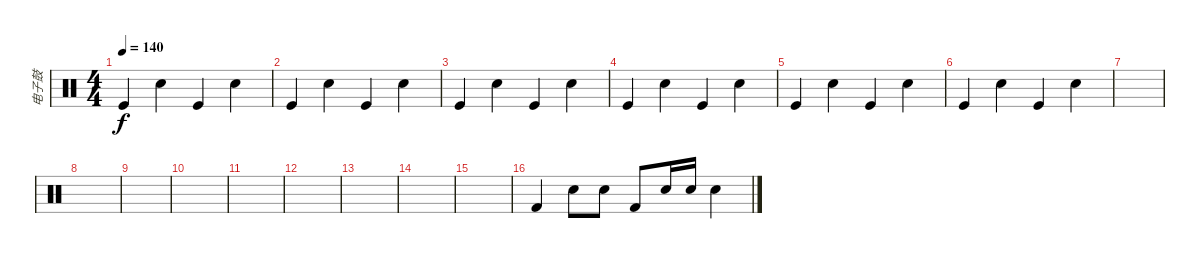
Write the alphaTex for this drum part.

\track ("电子鼓" "电子鼓") {instrument percussion}
\staff {score}
\articulation defaults
\ts (4 4)
\tempo 140
\clef neutral
\ks c "Kick (hit)".4{dy f} "Snare (hit) 2".4 "Kick (hit)".4 "Snare (hit) 2".4
|
"Kick (hit)".4 "Snare (hit) 2".4 "Kick (hit)".4 "Snare (hit) 2".4 |
"Kick (hit)".4 "Snare (hit) 2".4 "Kick (hit)".4 "Snare (hit) 2".4 |
"Kick (hit)".4 "Snare (hit) 2".4 "Kick (hit)".4 "Snare (hit) 2".4 |
"Kick (hit)".4 "Snare (hit) 2".4 "Kick (hit)".4 "Snare (hit) 2".4 |
"Kick (hit)".4 "Snare (hit) 2".4 "Kick (hit)".4 "Snare (hit) 2".4 |
|
|
|
|
|
|
|
|
|
"Kick (hit) 2".4 "Electric Snare (hit)".8 "Snare (hit) 2".8 "Kick (hit) 2".8 "Snare (hit) 2".16 "Snare (hit) 2".16 "Snare (hit) 2".4
